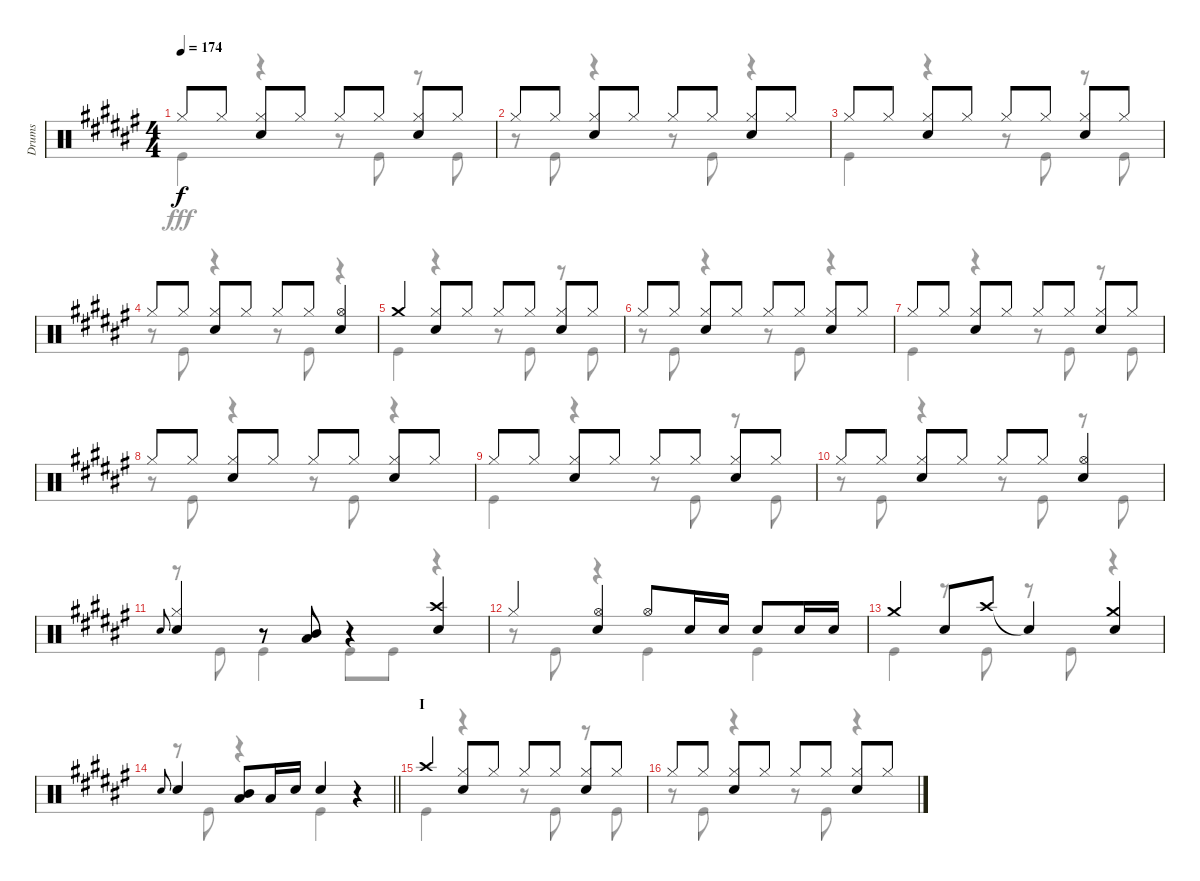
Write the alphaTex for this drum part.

\track ("Drums" "Drums") {instrument percussion}
\staff {score}
\articulation defaults
\voice
\ts (4 4)
\tempo 174
\clef neutral
\ks f# "Hi-Hat (closed)".8{dy f} "Hi-Hat (closed)".8
("Hi-Hat (closed)" "Snare (hit) 2").8 "Hi-Hat (closed)".8 "Hi-Hat (closed)".8 "Hi-Hat (closed)".8 ("Hi-Hat (closed)" "Snare (hit) 2").8 "Hi-Hat (closed)".8 |
"Hi-Hat (closed)".8 "Hi-Hat (closed)".8 ("Hi-Hat (closed)" "Snare (hit) 2").8 "Hi-Hat (closed)".8 "Hi-Hat (closed)".8 "Hi-Hat (closed)".8 ("Hi-Hat (closed)" "Snare (hit) 2").8 "Hi-Hat (closed)".8 |
"Hi-Hat (closed)".8 "Hi-Hat (closed)".8 ("Hi-Hat (closed)" "Snare (hit) 2").8 "Hi-Hat (closed)".8 "Hi-Hat (closed)".8 "Hi-Hat (closed)".8 ("Hi-Hat (closed)" "Snare (hit) 2").8 "Hi-Hat (closed)".8 |
"Hi-Hat (closed)".8 "Hi-Hat (closed)".8 ("Hi-Hat (closed)" "Snare (hit) 2").8 "Hi-Hat (closed)".8 "Hi-Hat (closed)".8 "Hi-Hat (closed)".8 ("Hi-Hat (open)" "Snare (hit) 2").4 |
"Crash medium (hit)".4 ("Hi-Hat (closed)" "Snare (hit) 2").8 "Hi-Hat (closed)".8 "Hi-Hat (closed)".8 "Hi-Hat (closed)".8 ("Hi-Hat (closed)" "Snare (hit) 2").8 "Hi-Hat (closed)".8 |
"Hi-Hat (closed)".8 "Hi-Hat (closed)".8 ("Hi-Hat (closed)" "Snare (hit) 2").8 "Hi-Hat (closed)".8 "Hi-Hat (closed)".8 "Hi-Hat (closed)".8 ("Hi-Hat (closed)" "Snare (hit) 2").8 "Hi-Hat (closed)".8 |
"Hi-Hat (closed)".8 "Hi-Hat (closed)".8 ("Hi-Hat (closed)" "Snare (hit) 2").8 "Hi-Hat (closed)".8 "Hi-Hat (closed)".8 "Hi-Hat (closed)".8 ("Hi-Hat (closed)" "Snare (hit) 2").8 "Hi-Hat (closed)".8 |
"Hi-Hat (closed)".8 "Hi-Hat (closed)".8 ("Hi-Hat (closed)" "Snare (hit) 2").8 "Hi-Hat (closed)".8 "Hi-Hat (closed)".8 "Hi-Hat (closed)".8 ("Hi-Hat (closed)" "Snare (hit) 2").8 "Hi-Hat (closed)".8 |
"Hi-Hat (closed)".8 "Hi-Hat (closed)".8 ("Hi-Hat (closed)" "Snare (hit) 2").8 "Hi-Hat (closed)".8 "Hi-Hat (closed)".8 "Hi-Hat (closed)".8 ("Hi-Hat (closed)" "Snare (hit) 2").8 "Hi-Hat (closed)".8 |
"Hi-Hat (closed)".8 "Hi-Hat (closed)".8 ("Hi-Hat (closed)" "Snare (hit) 2").8 "Hi-Hat (closed)".8 "Hi-Hat (closed)".8 "Hi-Hat (closed)".8 ("Hi-Hat (open)" "Snare (hit) 2").4 |
"Snare (hit) 2".8{gr onbeat} ("Hi-Hat (closed)" "Snare (hit) 2").4 r.8 ("Mid Tom (hit)" "Low Tom (hit)").8 r.4 ("Crash high (hit)" "Snare (hit) 2").4 |
"Hi-Hat (closed)".4 ("Hi-Hat (open)" "Snare (hit) 2").4 "Hi-Hat (open)".8 "Snare (hit) 2".16 "Snare (hit) 2".16 "Snare (hit) 2".8 "Snare (hit) 2".16 "Snare (hit) 2".16 |
"Crash medium (hit)".4 "Snare (hit) 2".8 "Crash high (hit)".8 "Snare (hit)"{t}.4 ("Crash medium (hit)" "Snare (hit) 2").4 |
\barLineRight lightlight "Snare (hit) 2".8{gr onbeat} "Snare (hit) 2".4
("Mid Tom (hit)" "Low Tom (hit)").8 "Low Tom (hit)".16 "Snare (hit) 2".16 "Snare (hit) 2".4 r.4 |
\section ("" "I")
"Crash high (hit)".4 ("Hi-Hat (closed)" "Snare (hit) 2").8 "Hi-Hat (closed)".8 "Hi-Hat (closed)".8 "Hi-Hat (closed)".8 ("Hi-Hat (closed)" "Snare (hit) 2").8 "Hi-Hat (closed)".8 |
"Hi-Hat (closed)".8 "Hi-Hat (closed)".8 ("Hi-Hat (closed)" "Snare (hit) 2").8 "Hi-Hat (closed)".8 "Hi-Hat (closed)".8 "Hi-Hat (closed)".8 ("Hi-Hat (closed)" "Snare (hit) 2").8 "Hi-Hat (closed)".8
\voice
\clef neutral
\ottava regular
\simile none
\ks f# "Kick (hit)".4{dy fff}
r.4 r.8 "Kick (hit)".8 r.8 "Kick (hit)".8 |
r.8 "Kick (hit)".8 r.4 r.8 "Kick (hit)".8 r.4 |
"Kick (hit)".4 r.4 r.8 "Kick (hit)".8 r.8 "Kick (hit)".8 |
r.8 "Kick (hit)".8 r.4 r.8 "Kick (hit)".8 r.4 |
"Kick (hit)".4 r.4 r.8 "Kick (hit)".8 r.8 "Kick (hit)".8 |
r.8 "Kick (hit)".8 r.4 r.8 "Kick (hit)".8 r.4 |
"Kick (hit)".4 r.4 r.8 "Kick (hit)".8 r.8 "Kick (hit)".8 |
r.8 "Kick (hit)".8 r.4 r.8 "Kick (hit)".8 r.4 |
"Kick (hit)".4 r.4 r.8 "Kick (hit)".8 r.8 "Kick (hit)".8 |
r.8 "Kick (hit)".8 r.4 r.8 "Kick (hit)".8 r.8 "Kick (hit)".8 |
r.8 "Kick (hit)".8 "Kick (hit)".4 "Kick (hit)".8 "Kick (hit)".8 r.4 |
r.8 "Kick (hit)".8 r.4 "Kick (hit)".4 "Kick (hit)".4 |
"Kick (hit)".4 r.8 "Kick (hit)".8 r.8 "Kick (hit)".8 r.4 |
\barLineRight lightlight
r.8 "Kick (hit)".8 r.4 "Kick (hit)".4 r.4 |
"Kick (hit)".4 r.4 r.8 "Kick (hit)".8 r.8 "Kick (hit)".8 |
r.8 "Kick (hit)".8 r.4 r.8 "Kick (hit)".8 r.4
